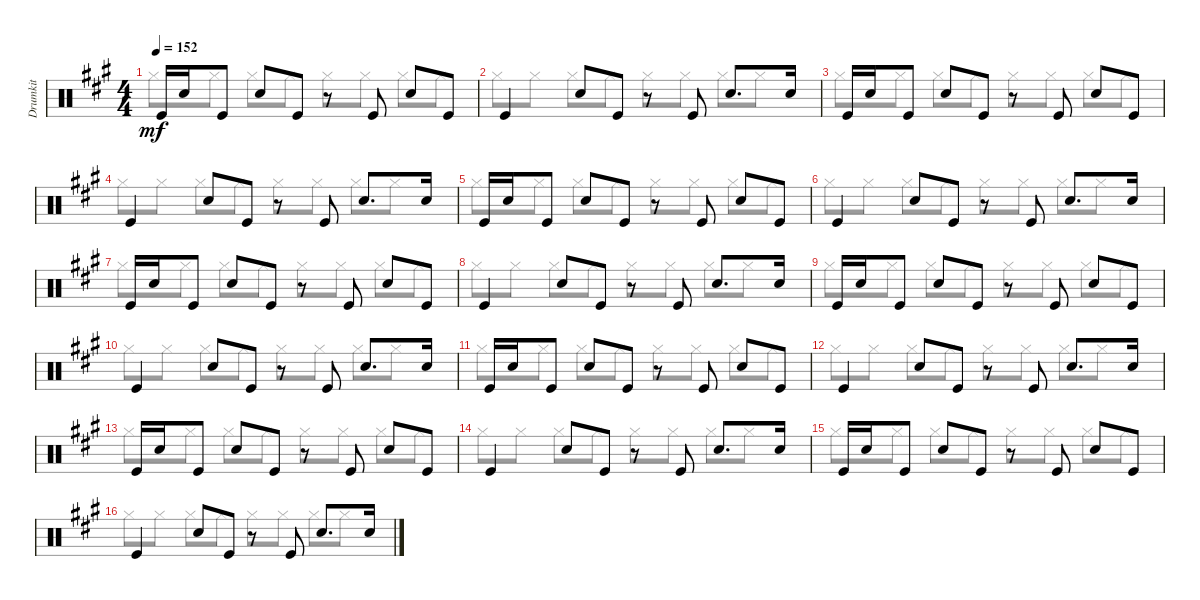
\track ("Drumkit" "Drumkit") {instrument percussion}
\staff {score}
\articulation defaults
\voice
\ts (4 4)
\tempo 152
\clef neutral
\ks a "Kick (hit)".16{dy mf} "Snare (hit) 2".16 "Kick (hit)".8 "Snare (hit) 2".8 "Kick (hit)".8
r.8 "Kick (hit)".8 "Snare (hit) 2".8 "Kick (hit)".8 |
"Kick (hit)".4 "Snare (hit) 2".8 "Kick (hit)".8 r.8 "Kick (hit)".8 "Snare (hit) 2".8{d} "Snare (hit) 2".16 |
"Kick (hit)".16 "Snare (hit) 2".16 "Kick (hit)".8 "Snare (hit) 2".8 "Kick (hit)".8 r.8 "Kick (hit)".8 "Snare (hit) 2".8 "Kick (hit)".8 |
"Kick (hit)".4 "Snare (hit) 2".8 "Kick (hit)".8 r.8 "Kick (hit)".8 "Snare (hit) 2".8{d} "Snare (hit) 2".16 |
"Kick (hit)".16 "Snare (hit) 2".16 "Kick (hit)".8 "Snare (hit) 2".8 "Kick (hit)".8 r.8 "Kick (hit)".8 "Snare (hit) 2".8 "Kick (hit)".8 |
"Kick (hit)".4 "Snare (hit) 2".8 "Kick (hit)".8 r.8 "Kick (hit)".8 "Snare (hit) 2".8{d} "Snare (hit) 2".16 |
"Kick (hit)".16 "Snare (hit) 2".16 "Kick (hit)".8 "Snare (hit) 2".8 "Kick (hit)".8 r.8 "Kick (hit)".8 "Snare (hit) 2".8 "Kick (hit)".8 |
"Kick (hit)".4 "Snare (hit) 2".8 "Kick (hit)".8 r.8 "Kick (hit)".8 "Snare (hit) 2".8{d} "Snare (hit) 2".16 |
"Kick (hit)".16 "Snare (hit) 2".16 "Kick (hit)".8 "Snare (hit) 2".8 "Kick (hit)".8 r.8 "Kick (hit)".8 "Snare (hit) 2".8 "Kick (hit)".8 |
"Kick (hit)".4 "Snare (hit) 2".8 "Kick (hit)".8 r.8 "Kick (hit)".8 "Snare (hit) 2".8{d} "Snare (hit) 2".16 |
"Kick (hit)".16 "Snare (hit) 2".16 "Kick (hit)".8 "Snare (hit) 2".8 "Kick (hit)".8 r.8 "Kick (hit)".8 "Snare (hit) 2".8 "Kick (hit)".8 |
"Kick (hit)".4 "Snare (hit) 2".8 "Kick (hit)".8 r.8 "Kick (hit)".8 "Snare (hit) 2".8{d} "Snare (hit) 2".16 |
"Kick (hit)".16 "Snare (hit) 2".16 "Kick (hit)".8 "Snare (hit) 2".8 "Kick (hit)".8 r.8 "Kick (hit)".8 "Snare (hit) 2".8 "Kick (hit)".8 |
"Kick (hit)".4 "Snare (hit) 2".8 "Kick (hit)".8 r.8 "Kick (hit)".8 "Snare (hit) 2".8{d} "Snare (hit) 2".16 |
"Kick (hit)".16 "Snare (hit) 2".16 "Kick (hit)".8 "Snare (hit) 2".8 "Kick (hit)".8 r.8 "Kick (hit)".8 "Snare (hit) 2".8 "Kick (hit)".8 |
"Kick (hit)".4 "Snare (hit) 2".8 "Kick (hit)".8 r.8 "Kick (hit)".8 "Snare (hit) 2".8{d} "Snare (hit) 2".16
\voice
\clef neutral
\ottava regular
\simile none
\ks a "Hi-Hat (closed)".8{dy mf} "Hi-Hat (closed)".8 "Hi-Hat (closed)".8 "Hi-Hat (closed)".8 "Hi-Hat (closed)".8 "Hi-Hat (closed)".8 "Hi-Hat (closed)".8 "Hi-Hat (closed)".8
|
"Hi-Hat (closed)".8 "Hi-Hat (closed)".8 "Hi-Hat (closed)".8 "Hi-Hat (closed)".8 "Hi-Hat (closed)".8 "Hi-Hat (closed)".8 "Hi-Hat (closed)".8 "Hi-Hat (closed)".8 |
"Hi-Hat (closed)".8 "Hi-Hat (closed)".8 "Hi-Hat (closed)".8 "Hi-Hat (closed)".8 "Hi-Hat (closed)".8 "Hi-Hat (closed)".8 "Hi-Hat (closed)".8 "Hi-Hat (closed)".8 |
"Hi-Hat (closed)".8 "Hi-Hat (closed)".8 "Hi-Hat (closed)".8 "Hi-Hat (closed)".8 "Hi-Hat (closed)".8 "Hi-Hat (closed)".8 "Hi-Hat (closed)".8 "Hi-Hat (closed)".8 |
"Hi-Hat (closed)".8 "Hi-Hat (closed)".8 "Hi-Hat (closed)".8 "Hi-Hat (closed)".8 "Hi-Hat (closed)".8 "Hi-Hat (closed)".8 "Hi-Hat (closed)".8 "Hi-Hat (closed)".8 |
"Hi-Hat (closed)".8 "Hi-Hat (closed)".8 "Hi-Hat (closed)".8 "Hi-Hat (closed)".8 "Hi-Hat (closed)".8 "Hi-Hat (closed)".8 "Hi-Hat (closed)".8 "Hi-Hat (closed)".8 |
"Hi-Hat (closed)".8 "Hi-Hat (closed)".8 "Hi-Hat (closed)".8 "Hi-Hat (closed)".8 "Hi-Hat (closed)".8 "Hi-Hat (closed)".8 "Hi-Hat (closed)".8 "Hi-Hat (closed)".8 |
"Hi-Hat (closed)".8 "Hi-Hat (closed)".8 "Hi-Hat (closed)".8 "Hi-Hat (closed)".8 "Hi-Hat (closed)".8 "Hi-Hat (closed)".8 "Hi-Hat (closed)".8 "Hi-Hat (closed)".8 |
"Hi-Hat (closed)".8 "Hi-Hat (closed)".8 "Hi-Hat (closed)".8 "Hi-Hat (closed)".8 "Hi-Hat (closed)".8 "Hi-Hat (closed)".8 "Hi-Hat (closed)".8 "Hi-Hat (closed)".8 |
"Hi-Hat (closed)".8 "Hi-Hat (closed)".8 "Hi-Hat (closed)".8 "Hi-Hat (closed)".8 "Hi-Hat (closed)".8 "Hi-Hat (closed)".8 "Hi-Hat (closed)".8 "Hi-Hat (closed)".8 |
"Hi-Hat (closed)".8 "Hi-Hat (closed)".8 "Hi-Hat (closed)".8 "Hi-Hat (closed)".8 "Hi-Hat (closed)".8 "Hi-Hat (closed)".8 "Hi-Hat (closed)".8 "Hi-Hat (closed)".8 |
"Hi-Hat (closed)".8 "Hi-Hat (closed)".8 "Hi-Hat (closed)".8 "Hi-Hat (closed)".8 "Hi-Hat (closed)".8 "Hi-Hat (closed)".8 "Hi-Hat (closed)".8 "Hi-Hat (closed)".8 |
"Hi-Hat (closed)".8 "Hi-Hat (closed)".8 "Hi-Hat (closed)".8 "Hi-Hat (closed)".8 "Hi-Hat (closed)".8 "Hi-Hat (closed)".8 "Hi-Hat (closed)".8 "Hi-Hat (closed)".8 |
"Hi-Hat (closed)".8 "Hi-Hat (closed)".8 "Hi-Hat (closed)".8 "Hi-Hat (closed)".8 "Hi-Hat (closed)".8 "Hi-Hat (closed)".8 "Hi-Hat (closed)".8 "Hi-Hat (closed)".8 |
"Hi-Hat (closed)".8 "Hi-Hat (closed)".8 "Hi-Hat (closed)".8 "Hi-Hat (closed)".8 "Hi-Hat (closed)".8 "Hi-Hat (closed)".8 "Hi-Hat (closed)".8 "Hi-Hat (closed)".8 |
"Hi-Hat (closed)".8 "Hi-Hat (closed)".8 "Hi-Hat (closed)".8 "Hi-Hat (closed)".8 "Hi-Hat (closed)".8 "Hi-Hat (closed)".8 "Hi-Hat (closed)".8 "Hi-Hat (closed)".8
